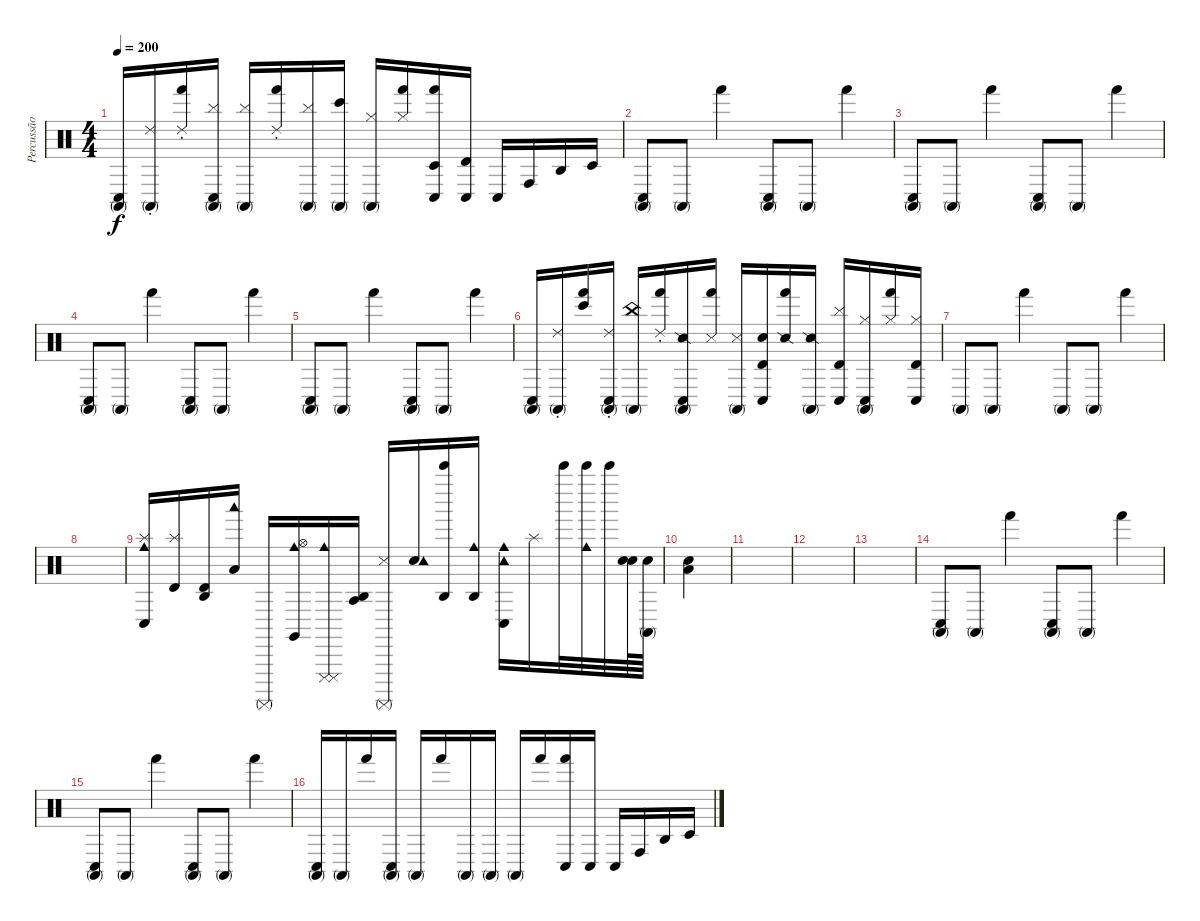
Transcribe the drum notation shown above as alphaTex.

\track ("Percussão" "Percussão") {instrument percussion}
\staff {score}
\articulation defaults
\ts (4 4)
\tempo 200
\clef neutral
\ks c
("Conga high (mute)" "Conga low (hit)").16{dy f} ("Conga high (mute)" "Ride (choke) 2").16 ("Hand (hit)" "Ride (choke) 2").16 ("Conga high (mute)" "Conga low (hit)" "Cymbal (hit)").16 ("Conga high (mute)" "Cymbal (hit)").16 ("Hand (hit)" "Ride (choke) 2").16 ("Conga high (mute)" "Cymbal (hit)").16 ("Conga high (mute)" "Bongo High (hit)").16 ("Conga high (mute)" "Hi-Hat (closed)").16 ("Hand (hit)" "Hi-Hat (closed)").16 ("Conga low (hit)" "Hand (hit)" "Timbale low (hit)").16 ("Conga low (hit)" "Timbale high (hit)").16 "Conga low (hit)".16 "Conga high (hit)".16 "Agogo high (hit)".16 "Timbale low (hit)".16 |
("Conga high (mute)" "Conga low (hit)").8 "Conga high (mute)".8 "Hand (hit)".4 ("Conga high (mute)" "Conga low (hit)").8 "Conga high (mute)".8 "Hand (hit)".4 |
("Conga high (mute)" "Conga low (hit)").8 "Conga high (mute)".8 "Hand (hit)".4 ("Conga high (mute)" "Conga low (hit)").8 "Conga high (mute)".8 "Hand (hit)".4 |
("Conga high (mute)" "Conga low (hit)").8 "Conga high (mute)".8 "Hand (hit)".4 ("Conga high (mute)" "Conga low (hit)").8 "Conga high (mute)".8 "Hand (hit)".4 |
("Conga high (mute)" "Conga low (hit)").8 "Conga high (mute)".8 "Hand (hit)".4 ("Conga high (mute)" "Conga low (hit)").8 "Conga high (mute)".8 "Hand (hit)".4 |
("Conga high (mute)" "Conga low (hit)").16 ("Conga high (mute)" "Ride (choke) 2").16 ("Hand (hit)" "Bongo High (hit)").16 ("Conga high (mute)" "Conga low (hit)" "Ride (choke) 2").16 ("Conga high (mute)" "China (hit)").16 ("Hand (hit)" "Ride (choke) 2").16 ("Conga high (mute)" "Conga low (hit)" "Snare (side stick) 2").16 ("Hand (hit)" "Metronome (hit)").16 ("Conga high (mute)" "Metronome (hit)").16 ("Timbale high (hit)" "Conga low (hit)" "Snare (hit) 2").16 ("Hand (hit)" "Snare (side stick) 2").16 ("Conga high (mute)" "Snare (side stick) 2").16 ("Timbale high (hit)" "Conga low (hit)" "Cymbal (hit)").16 ("Conga high (mute)" "Conga low (hit)" "Hi-Hat (closed)").16 ("Hand (hit)" "Hi-Hat (closed)").16 ("Timbale high (hit)" "Conga low (hit)" "Hi-Hat (closed)").16 |
"Conga high (mute)".8 "Conga high (mute)".8 "Hand (hit)".4 "Conga high (mute)".8 "Conga high (mute)".8 "Hand (hit)".4 |
|
("Cowbell medium (hit)" "Conga low (hit)" "Splash (hit)").16 ("Splash (hit)" "Timbale high (hit)").16 ("Timbale high (hit)" "Agogo high (hit)").16 ("Low Tom (hit)" "Woodblock low (hit)").16 "Surdo (mute)".16 ("Cowbell medium (hit)" "Claves (hit)" "Hi-Hat (open)").16 ("Cuica (mute)" "Cuica (mute)" "Cowbell medium (hit)").16 ("Agogo tow (hit)" "Agogo high (hit)").16 ("Surdo (mute)" "Metronome (hit)").16 ("Snare (hit)" "Tambourine (hit)").16 ("Bell Tree (hit)" "Agogo high (hit)").16 ("Agogo high (hit)" "Cowbell medium (hit)").16 ("Tambourine (hit)" "Conga low (hit)" "Cowbell medium (hit)").16 "Splash (hit)".16 "Bell Tree (hit)".32 ("Bell Tree (hit)" "Cowbell medium (hit)").32 "Bell Tree (hit)".32 ("Snare (hit)" "Snare (hit)").64 ("Conga high (mute)" "Snare (hit)").64 |
("Snare (hit)" "Low Tom (hit)").4 |
|
|
|
("Conga high (mute)" "Conga low (hit)").8 "Conga high (mute)".8 "Hand (hit)".4 ("Conga high (mute)" "Conga low (hit)").8 "Conga high (mute)".8 "Hand (hit)".4 |
("Conga high (mute)" "Conga low (hit)").8 "Conga high (mute)".8 "Hand (hit)".4 ("Conga high (mute)" "Conga low (hit)").8 "Conga high (mute)".8 "Hand (hit)".4 |
("Conga high (mute)" "Conga low (hit)").16 "Conga high (mute)".16 "Hand (hit)".16 ("Conga high (mute)" "Conga low (hit)").16 "Conga high (mute)".16 "Hand (hit)".16 "Conga high (mute)".16 "Conga high (mute)".16 "Conga high (mute)".16 "Hand (hit)".16 ("Conga low (hit)" "Hand (hit)").16 "Conga low (hit)".16 "Conga low (hit)".16 "Conga high (hit)".16 "Agogo high (hit)".16 "Timbale low (hit)".16
